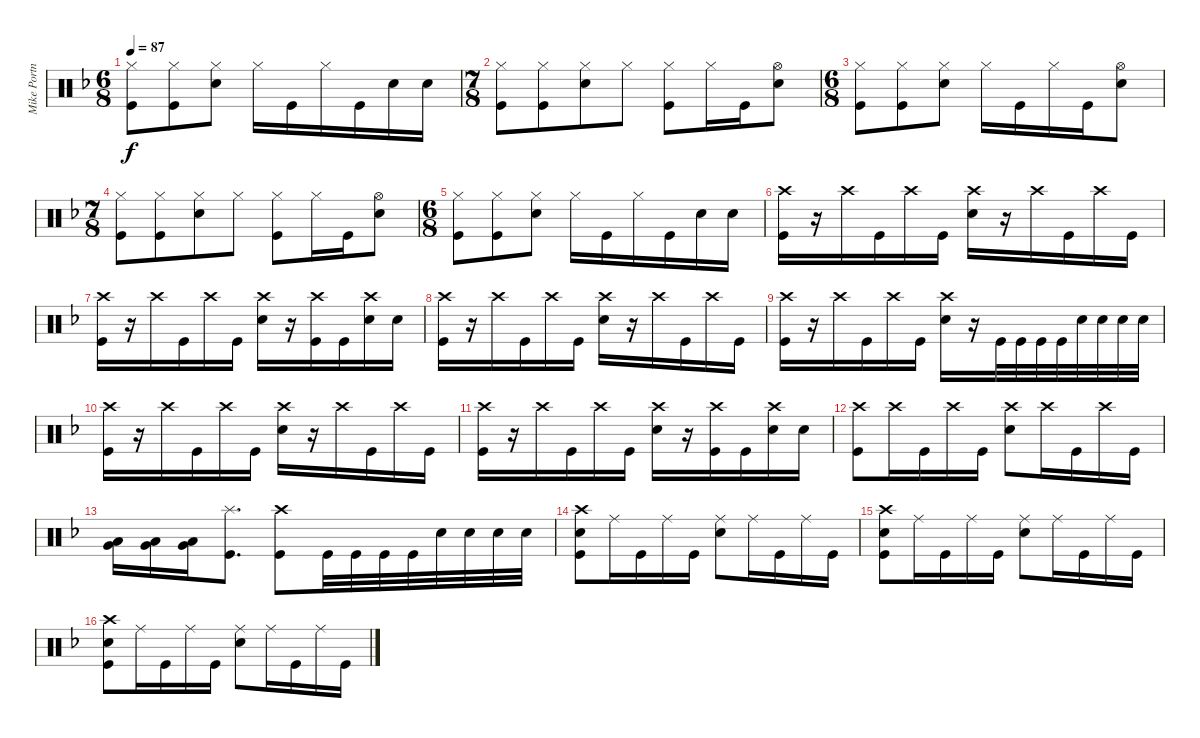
\track ("Mike Portnoy - Drums" "Mike Portn") {instrument percussion}
\staff {score}
\articulation defaults
\ts (6 8)
\tempo 87
\clef neutral
\ks dminor
("Hi-Hat (closed)" "Kick (hit)").8{dy f} ("Hi-Hat (closed)" "Kick (hit)").8 ("Hi-Hat (closed)" "Snare (hit) 2").8 "Hi-Hat (closed)".16 "Kick (hit)".16 "Hi-Hat (closed)".16 "Kick (hit)".16 "Snare (hit) 2".16 "Snare (hit) 2".16 |
\ts (7 8)
("Hi-Hat (closed)" "Kick (hit)").8 ("Hi-Hat (closed)" "Kick (hit)").8 ("Hi-Hat (closed)" "Snare (hit) 2").8 "Hi-Hat (closed)".8 ("Hi-Hat (closed)" "Kick (hit)").8 "Hi-Hat (closed)".16 "Kick (hit)".16 ("Hi-Hat (open)" "Snare (hit) 2").8 |
\ts (6 8)
("Hi-Hat (closed)" "Kick (hit)").8 ("Hi-Hat (closed)" "Kick (hit)").8 ("Hi-Hat (closed)" "Snare (hit) 2").8 "Hi-Hat (closed)".16 "Kick (hit)".16 "Hi-Hat (closed)".16 "Kick (hit)".16 ("Hi-Hat (open)" "Snare (hit) 2").8 |
\ts (7 8)
("Hi-Hat (closed)" "Kick (hit)").8 ("Hi-Hat (closed)" "Kick (hit)").8 ("Hi-Hat (closed)" "Snare (hit) 2").8 "Hi-Hat (closed)".8 ("Hi-Hat (closed)" "Kick (hit)").8 "Hi-Hat (closed)".16 "Kick (hit)".16 ("Hi-Hat (open)" "Snare (hit) 2").8 |
\ts (6 8)
("Hi-Hat (closed)" "Kick (hit)").8 ("Hi-Hat (closed)" "Kick (hit)").8 ("Hi-Hat (closed)" "Snare (hit) 2").8 "Hi-Hat (closed)".16 "Kick (hit)".16 "Hi-Hat (closed)".16 "Kick (hit)".16 "Snare (hit) 2".16 "Snare (hit) 2".16 |
("Crash high (hit)" "Kick (hit)").16 r.16 "Crash high (hit)".16 "Kick (hit)".16 "Crash high (hit)".16 "Kick (hit)".16 ("Crash high (hit)" "Snare (hit) 2").16 r.16 "Crash high (hit)".16 "Kick (hit)".16 "Crash high (hit)".16 "Kick (hit)".16 |
("Crash high (hit)" "Kick (hit)").16 r.16 "Crash high (hit)".16 "Kick (hit)".16 "Crash high (hit)".16 "Kick (hit)".16 ("Crash high (hit)" "Snare (hit) 2").16 r.16 ("Crash high (hit)" "Kick (hit)").16 "Kick (hit)".16 ("Crash high (hit)" "Snare (hit) 2").16 "Snare (hit) 2".16 |
("Crash high (hit)" "Kick (hit)").16 r.16 "Crash high (hit)".16 "Kick (hit)".16 "Crash high (hit)".16 "Kick (hit)".16 ("Crash high (hit)" "Snare (hit) 2").16 r.16 "Crash high (hit)".16 "Kick (hit)".16 "Crash high (hit)".16 "Kick (hit)".16 |
("Crash high (hit)" "Kick (hit)").16 r.16 "Crash high (hit)".16 "Kick (hit)".16 "Crash high (hit)".16 "Kick (hit)".16 ("Crash high (hit)" "Snare (hit) 2").16 r.16 "Kick (hit)".32 "Kick (hit)".32 "Kick (hit)".32 "Kick (hit)".32 "Snare (hit) 2".32 "Snare (hit) 2".32 "Snare (hit) 2".32 "Snare (hit) 2".32 |
("Crash high (hit)" "Kick (hit)").16 r.16 "Crash high (hit)".16 "Kick (hit)".16 "Crash high (hit)".16 "Kick (hit)".16 ("Crash high (hit)" "Snare (hit) 2").16 r.16 "Crash high (hit)".16 "Kick (hit)".16 "Crash high (hit)".16 "Kick (hit)".16 |
("Crash high (hit)" "Kick (hit)").16 r.16 "Crash high (hit)".16 "Kick (hit)".16 "Crash high (hit)".16 "Kick (hit)".16 ("Crash high (hit)" "Snare (hit) 2").16 r.16 ("Crash high (hit)" "Kick (hit)").16 "Kick (hit)".16 ("Crash high (hit)" "Snare (hit) 2").16 "Snare (hit) 2".16 |
("Crash high (hit)" "Kick (hit)").8 "Crash high (hit)".16 "Kick (hit)".16 "Crash high (hit)".16 "Kick (hit)".16 ("Crash high (hit)" "Snare (hit) 2").8 "Crash high (hit)".16 "Kick (hit)".16 "Crash high (hit)".16 "Kick (hit)".16 |
("Low Tom (hit)" "Very Low Tom (hit)").16 ("Low Tom (hit)" "Very Low Tom (hit)").16 ("Low Tom (hit)" "Very Low Tom (hit)").16 ("Splash (hit)" "Kick (hit)").8{d} ("Crash high (hit)" "Kick (hit)").8 "Kick (hit)".32 "Kick (hit)".32 "Kick (hit)".32 "Kick (hit)".32 "Snare (hit) 2".32 "Snare (hit) 2".32 "Snare (hit) 2".32 "Snare (hit) 2".32 |
("Crash high (hit)" "Snare (hit) 2" "Kick (hit)").8 "Ride (middle)".16 "Kick (hit)".16 "Ride (middle)".16 "Kick (hit)".16 ("Ride (middle)" "Snare (hit) 2").8 "Ride (middle)".16 "Kick (hit)".16 "Ride (middle)".16 "Kick (hit)".16 |
("Crash high (hit)" "Snare (hit) 2" "Kick (hit)").8 "Ride (middle)".16 "Kick (hit)".16 "Ride (middle)".16 "Kick (hit)".16 ("Ride (middle)" "Snare (hit) 2").8 "Ride (middle)".16 "Kick (hit)".16 "Ride (middle)".16 "Kick (hit)".16 |
("Crash high (hit)" "Snare (hit) 2" "Kick (hit)").8 "Ride (middle)".16 "Kick (hit)".16 "Ride (middle)".16 "Kick (hit)".16 ("Ride (middle)" "Snare (hit) 2").8 "Ride (middle)".16 "Kick (hit)".16 "Ride (middle)".16 "Kick (hit)".16
